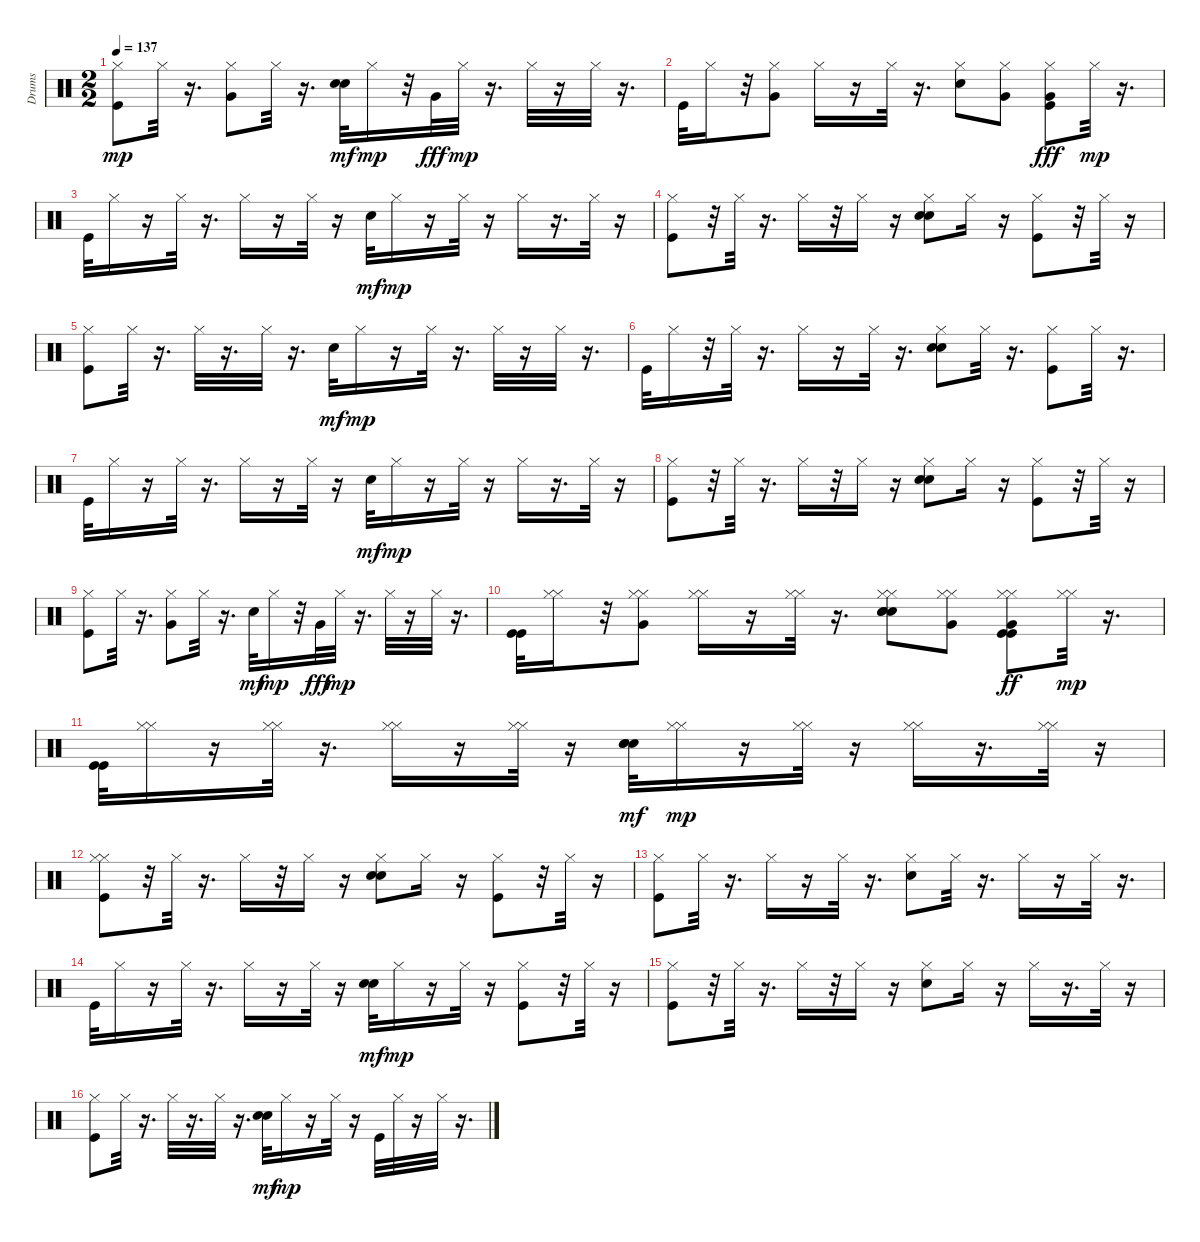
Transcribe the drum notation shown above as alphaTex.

\track ("Drums" "Drums") {instrument percussion}
\staff {score}
\articulation defaults
\ts (2 2)
\tempo 137
\clef neutral
\ks c
("Kick (hit)" "Hi-Hat (closed)").8{dy mp} "Hi-Hat (closed)".32 r.16{d} ("Very Low Tom (hit)" "Hi-Hat (closed)").8 "Hi-Hat (closed)".32 r.16{d} ("Snare (hit) 2" "Hand Clap (hit)").32{dy mf} "Hi-Hat (closed)".16{dy mp} r.32 "Very Low Tom (hit)".32{dy fff} "Hi-Hat (closed)".32{dy mp} r.16{d} "Hi-Hat (closed)".32 r.16 "Hi-Hat (closed)".32 r.16{d} |
"Kick (hit)".32 "Hi-Hat (closed)".16 r.32 ("Very Low Tom (hit)" "Hi-Hat (closed)").8 "Hi-Hat (closed)".16 r.16 "Hi-Hat (closed)".32 r.16{d} ("Snare (hit) 2" "Hi-Hat (closed)").8 ("Very Low Tom (hit)" "Hi-Hat (closed)").8 ("Kick (hit)" "Hi-Hat (closed)" "Very Low Tom (hit)").8{dy fff} "Hi-Hat (closed)".32{dy mp} r.16{d} |
"Kick (hit)".32 "Hi-Hat (closed)".16 r.16 "Hi-Hat (closed)".32 r.16{d} "Hi-Hat (closed)".16 r.16 "Hi-Hat (closed)".32 r.16 "Snare (hit) 2".32{dy mf} "Hi-Hat (closed)".16{dy mp} r.16 "Hi-Hat (closed)".32 r.16 "Hi-Hat (closed)".16 r.16{d} "Hi-Hat (closed)".32 r.16 |
("Kick (hit)" "Hi-Hat (closed)").8 r.32 "Hi-Hat (closed)".32 r.16{d} "Hi-Hat (closed)".16 r.32 "Hi-Hat (closed)".16 r.16 ("Snare (hit) 2" "Hand Clap (hit)" "Hi-Hat (closed)").8 "Hi-Hat (closed)".16 r.16 ("Kick (hit)" "Hi-Hat (closed)").8 r.32 "Hi-Hat (closed)".32 r.16 |
("Kick (hit)" "Hi-Hat (closed)").8 "Hi-Hat (closed)".32 r.16{d} "Hi-Hat (closed)".32 r.16{d} "Hi-Hat (closed)".32 r.16{d} "Snare (hit) 2".32{dy mf} "Hi-Hat (closed)".16{dy mp} r.16 "Hi-Hat (closed)".32 r.16{d} "Hi-Hat (closed)".32 r.16 "Hi-Hat (closed)".32 r.16{d} |
"Kick (hit)".32 "Hi-Hat (closed)".16 r.32 "Hi-Hat (closed)".32 r.16{d} "Hi-Hat (closed)".16 r.16 "Hi-Hat (closed)".32 r.16{d} ("Snare (hit) 2" "Hand Clap (hit)" "Hi-Hat (closed)").8 "Hi-Hat (closed)".32 r.16{d} ("Kick (hit)" "Hi-Hat (closed)").8 "Hi-Hat (closed)".32 r.16{d} |
"Kick (hit)".32 "Hi-Hat (closed)".16 r.16 "Hi-Hat (closed)".32 r.16{d} "Hi-Hat (closed)".16 r.16 "Hi-Hat (closed)".32 r.16 "Snare (hit) 2".32{dy mf} "Hi-Hat (closed)".16{dy mp} r.16 "Hi-Hat (closed)".32 r.16 "Hi-Hat (closed)".16 r.16{d} "Hi-Hat (closed)".32 r.16 |
("Kick (hit)" "Hi-Hat (closed)").8 r.32 "Hi-Hat (closed)".32 r.16{d} "Hi-Hat (closed)".16 r.32 "Hi-Hat (closed)".16 r.16 ("Snare (hit) 2" "Hand Clap (hit)" "Hi-Hat (closed)").8 "Hi-Hat (closed)".16 r.16 ("Kick (hit)" "Hi-Hat (closed)").8 r.32 "Hi-Hat (closed)".32 r.16 |
("Kick (hit)" "Hi-Hat (closed)").8 "Hi-Hat (closed)".32 r.16{d} ("Very Low Tom (hit)" "Hi-Hat (closed)").8 "Hi-Hat (closed)".32 r.16{d} "Snare (hit) 2".32{dy mf} "Hi-Hat (closed)".16{dy mp} r.32 "Very Low Tom (hit)".32{dy fff} "Hi-Hat (closed)".32{dy mp} r.16{d} "Hi-Hat (closed)".32 r.16 "Hi-Hat (closed)".32 r.16{d} |
("Kick (hit)" "Kick (hit)").32 ("Hi-Hat (closed)" "Hi-Hat (closed)").16 r.32 ("Very Low Tom (hit)" "Hi-Hat (closed)" "Hi-Hat (closed)").8 ("Hi-Hat (closed)" "Hi-Hat (closed)").16 r.16 ("Hi-Hat (closed)" "Hi-Hat (closed)").32 r.16{d} ("Snare (hit) 2" "Snare (hit) 2" "Hand Clap (hit)" "Hi-Hat (closed)" "Hi-Hat (closed)").8 ("Very Low Tom (hit)" "Hi-Hat (closed)" "Hi-Hat (closed)").8 ("Kick (hit)" "Kick (hit)" "Hi-Hat (closed)" "Hi-Hat (closed)" "Very Low Tom (hit)").8{dy ff} ("Hi-Hat (closed)" "Hi-Hat (closed)").32{dy mp} r.16{d} |
("Kick (hit)" "Kick (hit)").32 ("Hi-Hat (closed)" "Hi-Hat (closed)").16 r.16 ("Hi-Hat (closed)" "Hi-Hat (closed)").32 r.16{d} ("Hi-Hat (closed)" "Hi-Hat (closed)").16 r.16 ("Hi-Hat (closed)" "Hi-Hat (closed)").32 r.16 ("Snare (hit) 2" "Snare (hit) 2" "Hand Clap (hit)").32{dy mf} ("Hi-Hat (closed)" "Hi-Hat (closed)").16{dy mp} r.16 ("Hi-Hat (closed)" "Hi-Hat (closed)").32 r.16 ("Hi-Hat (closed)" "Hi-Hat (closed)").16 r.16{d} ("Hi-Hat (closed)" "Hi-Hat (closed)").32 r.16 |
("Kick (hit)" "Hi-Hat (closed)" "Hi-Hat (closed)").8 r.32 "Hi-Hat (closed)".32 r.16{d} "Hi-Hat (closed)".16 r.32 "Hi-Hat (closed)".16 r.16 ("Snare (hit) 2" "Hand Clap (hit)" "Hi-Hat (closed)").8 "Hi-Hat (closed)".16 r.16 ("Kick (hit)" "Hi-Hat (closed)").8 r.32 "Hi-Hat (closed)".32 r.16 |
("Kick (hit)" "Hi-Hat (closed)").8 "Hi-Hat (closed)".32 r.16{d} "Hi-Hat (closed)".16 r.16 "Hi-Hat (closed)".32 r.16{d} ("Snare (hit) 2" "Hi-Hat (closed)").8 "Hi-Hat (closed)".32 r.16{d} "Hi-Hat (closed)".16 r.16 "Hi-Hat (closed)".32 r.16{d} |
"Kick (hit)".32 "Hi-Hat (closed)".16 r.16 "Hi-Hat (closed)".32 r.16{d} "Hi-Hat (closed)".16 r.16 "Hi-Hat (closed)".32 r.16 ("Snare (hit) 2" "Hand Clap (hit)").32{dy mf} "Hi-Hat (closed)".16{dy mp} r.16 "Hi-Hat (closed)".32 r.16 ("Kick (hit)" "Hi-Hat (closed)").8 r.32 "Hi-Hat (closed)".32 r.16 |
("Kick (hit)" "Hi-Hat (closed)").8 r.32 "Hi-Hat (closed)".32 r.16{d} "Hi-Hat (closed)".16 r.32 "Hi-Hat (closed)".16 r.16 ("Snare (hit) 2" "Hi-Hat (closed)").8 "Hi-Hat (closed)".16 r.16 "Hi-Hat (closed)".16 r.16{d} "Hi-Hat (closed)".32 r.16 |
("Kick (hit)" "Hi-Hat (closed)").8 "Hi-Hat (closed)".32 r.16{d} "Hi-Hat (closed)".32 r.16{d} "Hi-Hat (closed)".32 r.16{d} ("Snare (hit) 2" "Hand Clap (hit)").32{dy mf} "Hi-Hat (closed)".16{dy mp} r.16 "Hi-Hat (closed)".32 r.16 "Kick (hit)".32 "Hi-Hat (closed)".32 r.16 "Hi-Hat (closed)".32 r.16{d}
